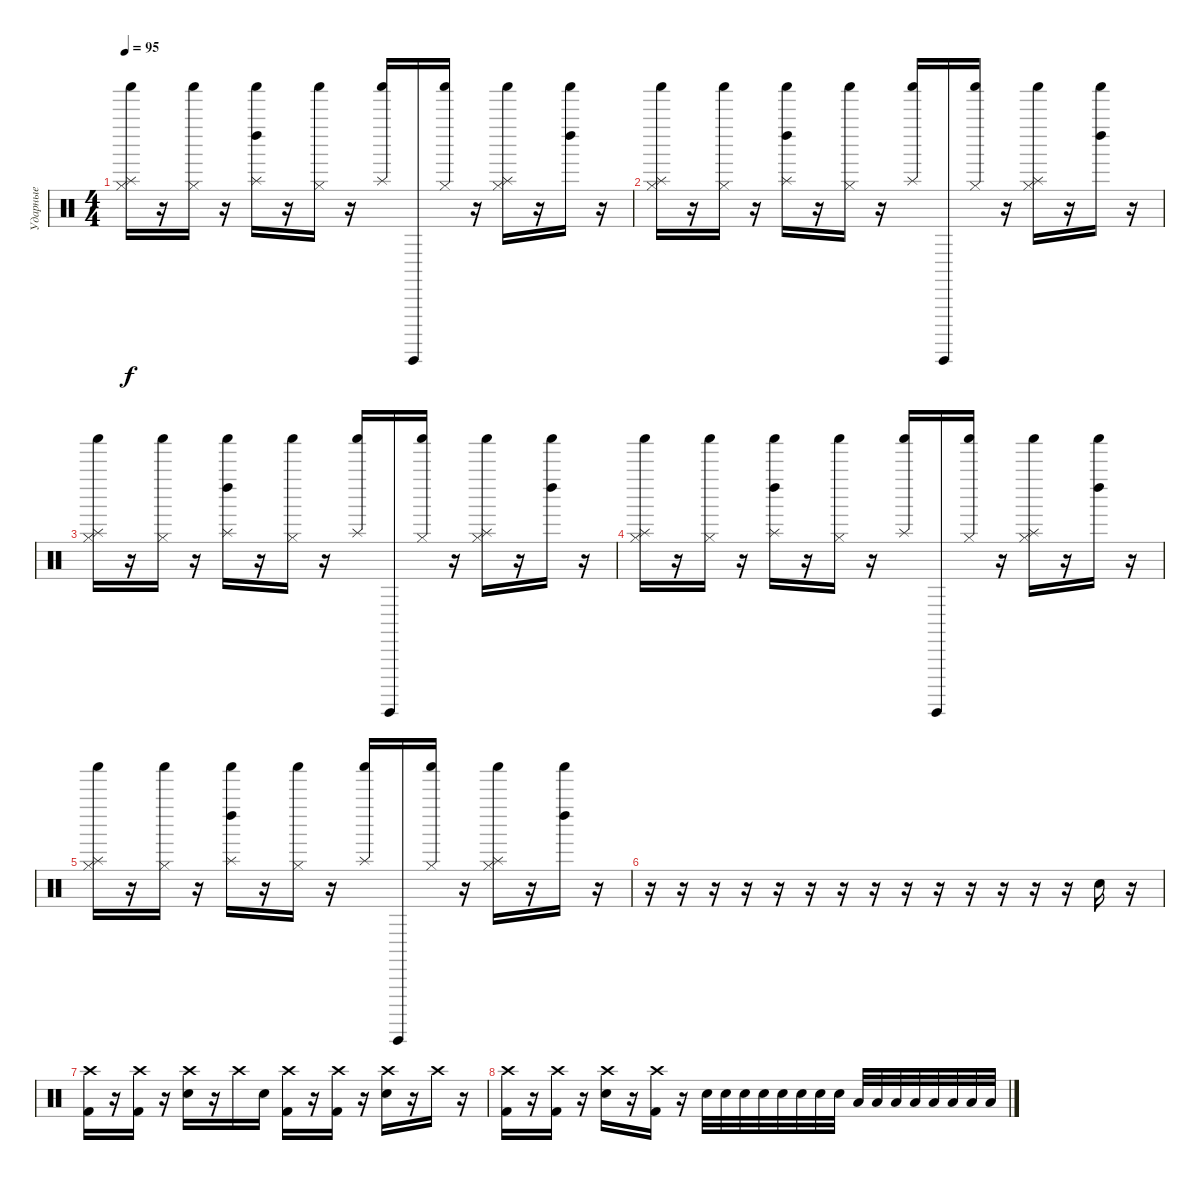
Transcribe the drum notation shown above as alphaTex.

\track ("Ударные" "Ударные") {instrument percussion}
\staff {score}
\articulation defaults
\ts (4 4)
\tempo 95
\clef neutral
\ks c
("Shaker (hit)" "Hi-Hat (closed)" "Splash (hit)").16{dy f} r.16 ("Shaker (hit)" "Hi-Hat (closed)").16 r.16 ("Shaker (hit)" "Left Maraca (hit)" "Splash (hit)").16 r.16 ("Shaker (hit)" "Hi-Hat (closed)").16 r.16 ("Shaker (hit)" "Splash (hit)").16 "Guiro (hit)".16 ("Shaker (hit)" "Hi-Hat (closed)").16 r.16 ("Shaker (hit)" "Hi-Hat (closed)" "Splash (hit)").16 r.16 ("Shaker (hit)" "Left Maraca (hit)").16 r.16 |
("Shaker (hit)" "Hi-Hat (closed)" "Splash (hit)").16 r.16 ("Shaker (hit)" "Hi-Hat (closed)").16 r.16 ("Shaker (hit)" "Left Maraca (hit)" "Splash (hit)").16 r.16 ("Shaker (hit)" "Hi-Hat (closed)").16 r.16 ("Shaker (hit)" "Splash (hit)").16 "Guiro (hit)".16 ("Shaker (hit)" "Hi-Hat (closed)").16 r.16 ("Shaker (hit)" "Hi-Hat (closed)" "Splash (hit)").16 r.16 ("Shaker (hit)" "Left Maraca (hit)").16 r.16 |
("Shaker (hit)" "Hi-Hat (closed)" "Splash (hit)").16 r.16 ("Shaker (hit)" "Hi-Hat (closed)").16 r.16 ("Shaker (hit)" "Left Maraca (hit)" "Splash (hit)").16 r.16 ("Shaker (hit)" "Hi-Hat (closed)").16 r.16 ("Shaker (hit)" "Splash (hit)").16 "Guiro (hit)".16 ("Shaker (hit)" "Hi-Hat (closed)").16 r.16 ("Shaker (hit)" "Hi-Hat (closed)" "Splash (hit)").16 r.16 ("Shaker (hit)" "Left Maraca (hit)").16 r.16 |
("Shaker (hit)" "Hi-Hat (closed)" "Splash (hit)").16 r.16 ("Shaker (hit)" "Hi-Hat (closed)").16 r.16 ("Shaker (hit)" "Left Maraca (hit)" "Splash (hit)").16 r.16 ("Shaker (hit)" "Hi-Hat (closed)").16 r.16 ("Shaker (hit)" "Splash (hit)").16 "Guiro (hit)".16 ("Shaker (hit)" "Hi-Hat (closed)").16 r.16 ("Shaker (hit)" "Hi-Hat (closed)" "Splash (hit)").16 r.16 ("Shaker (hit)" "Left Maraca (hit)").16 r.16 |
("Shaker (hit)" "Hi-Hat (closed)" "Splash (hit)").16 r.16 ("Shaker (hit)" "Hi-Hat (closed)").16 r.16 ("Shaker (hit)" "Left Maraca (hit)" "Splash (hit)").16 r.16 ("Shaker (hit)" "Hi-Hat (closed)").16 r.16 ("Shaker (hit)" "Splash (hit)").16 "Guiro (hit)".16 ("Shaker (hit)" "Hi-Hat (closed)").16 r.16 ("Shaker (hit)" "Hi-Hat (closed)" "Splash (hit)").16 r.16 ("Shaker (hit)" "Left Maraca (hit)").16 r.16 |
r.16{volume 16} r.16 r.16 r.16 r.16 r.16 r.16 r.16 r.16 r.16 r.16 r.16 r.16 r.16 "Electric Snare (hit)".16 r.16 |
("Crash high (hit)" "Kick (hit) 2").16 r.16 ("Crash high (hit)" "Kick (hit) 2").16 r.16 ("Crash high (hit)" "Electric Snare (hit)").16 r.16 "Crash high (hit)".16 "Electric Snare (hit)".16 ("Crash high (hit)" "Kick (hit) 2").16 r.16 ("Crash high (hit)" "Kick (hit) 2").16 r.16 ("Crash high (hit)" "Electric Snare (hit)").16 r.16 "Crash high (hit)".16 r.16 |
("Crash high (hit)" "Kick (hit) 2").16 r.16 ("Crash high (hit)" "Kick (hit) 2").16 r.16 ("Crash high (hit)" "Electric Snare (hit)").16 r.16 ("Crash high (hit)" "Kick (hit) 2").16 r.16 "Electric Snare (hit)".32 "Electric Snare (hit)".32 "Electric Snare (hit)".32 "Electric Snare (hit)".32 "Electric Snare (hit)".32 "Electric Snare (hit)".32 "Electric Snare (hit)".32 "Electric Snare (hit)".32 "Low Tom (hit)".32 "Low Tom (hit)".32 "Low Tom (hit)".32 "Low Tom (hit)".32 "Low Tom (hit)".32 "Low Tom (hit)".32 "Low Tom (hit)".32 "Low Tom (hit)".32
